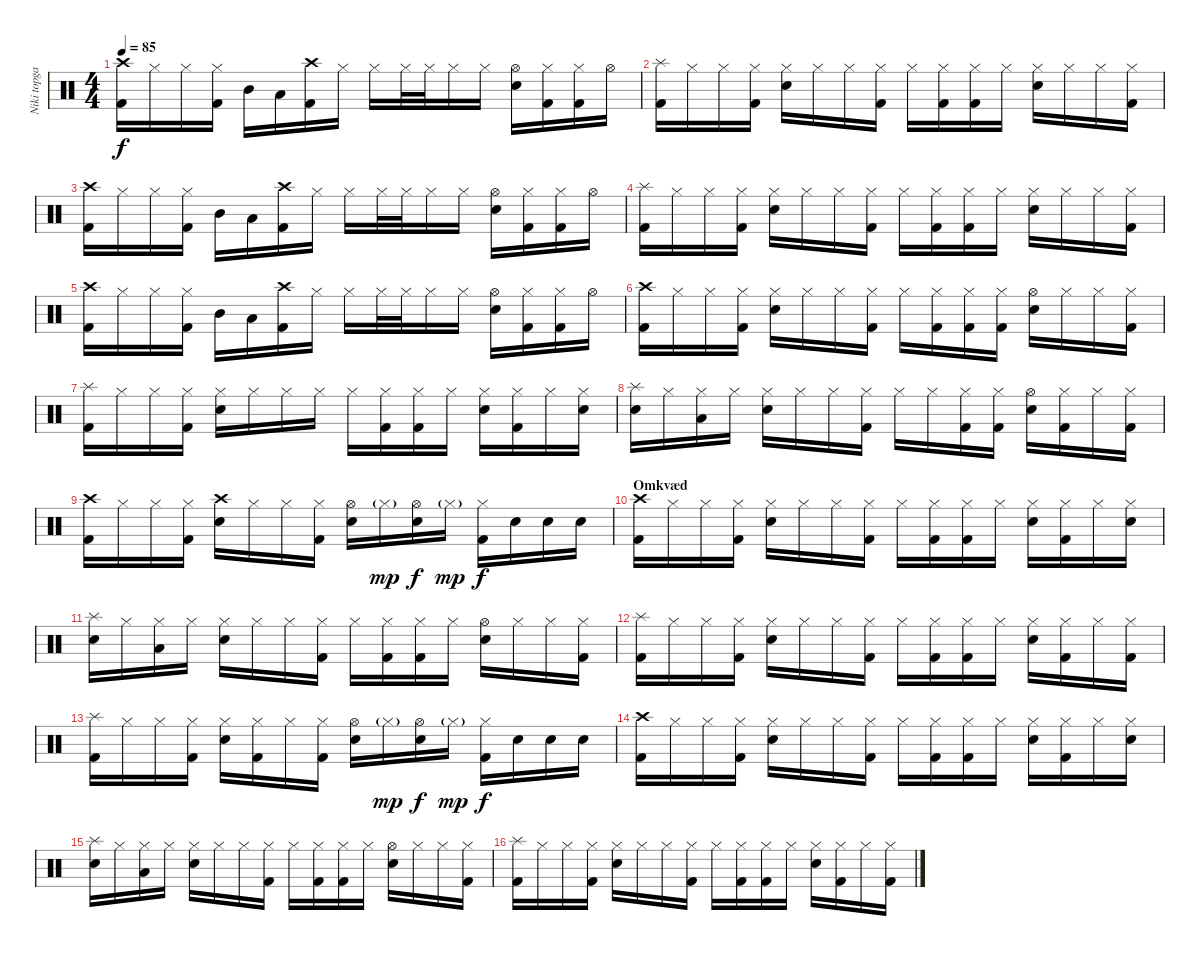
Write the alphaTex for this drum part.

\track ("Niki topgaard" "Niki topga") {instrument percussion}
\staff {score}
\articulation defaults
\ts (4 4)
\tempo 85
\clef neutral
\ks c
("Crash high (hit)" "Kick (hit) 2").16{dy f} "Hi-Hat (closed)".16 "Hi-Hat (closed)".16 ("Hi-Hat (closed)" "Kick (hit) 2").16 "Mid Tom (hit)".16 "Low Tom (hit)".16 ("Crash high (hit)" "Kick (hit) 2").16 "Hi-Hat (closed)".16 "Hi-Hat (closed)".16 "Hi-Hat (closed)".32 "Hi-Hat (closed)".32 "Hi-Hat (closed)".16 "Hi-Hat (closed)".16 ("Hi-Hat (open)" "Snare (hit) 2").16 ("Hi-Hat (closed)" "Kick (hit) 2").16 ("Hi-Hat (closed)" "Kick (hit) 2").16 "Hi-Hat (open)".16 |
("Splash (hit)" "Kick (hit) 2").16 "Hi-Hat (closed)".16 "Hi-Hat (closed)".16 ("Hi-Hat (closed)" "Kick (hit) 2").16 ("Hi-Hat (closed)" "Snare (hit) 2").16 "Hi-Hat (closed)".16 "Hi-Hat (closed)".16 ("Hi-Hat (closed)" "Kick (hit) 2").16 "Hi-Hat (closed)".16 ("Hi-Hat (closed)" "Kick (hit) 2").16 ("Hi-Hat (closed)" "Kick (hit) 2").16 "Hi-Hat (closed)".16 ("Hi-Hat (closed)" "Snare (hit) 2").16 "Hi-Hat (closed)".16 "Hi-Hat (closed)".16 ("Hi-Hat (closed)" "Kick (hit) 2").16 |
("Crash high (hit)" "Kick (hit) 2").16 "Hi-Hat (closed)".16 "Hi-Hat (closed)".16 ("Hi-Hat (closed)" "Kick (hit) 2").16 "Mid Tom (hit)".16 "Low Tom (hit)".16 ("Crash high (hit)" "Kick (hit) 2").16 "Hi-Hat (closed)".16 "Hi-Hat (closed)".16 "Hi-Hat (closed)".32 "Hi-Hat (closed)".32 "Hi-Hat (closed)".16 "Hi-Hat (closed)".16 ("Hi-Hat (open)" "Snare (hit) 2").16 ("Hi-Hat (closed)" "Kick (hit) 2").16 ("Hi-Hat (closed)" "Kick (hit) 2").16 "Hi-Hat (open)".16 |
("Splash (hit)" "Kick (hit) 2").16 "Hi-Hat (closed)".16 "Hi-Hat (closed)".16 ("Hi-Hat (closed)" "Kick (hit) 2").16 ("Hi-Hat (closed)" "Snare (hit) 2").16 "Hi-Hat (closed)".16 "Hi-Hat (closed)".16 ("Hi-Hat (closed)" "Kick (hit) 2").16 "Hi-Hat (closed)".16 ("Hi-Hat (closed)" "Kick (hit) 2").16 ("Hi-Hat (closed)" "Kick (hit) 2").16 "Hi-Hat (closed)".16 ("Hi-Hat (closed)" "Snare (hit) 2").16 "Hi-Hat (closed)".16 "Hi-Hat (closed)".16 ("Hi-Hat (closed)" "Kick (hit) 2").16 |
("Crash high (hit)" "Kick (hit) 2").16 "Hi-Hat (closed)".16 "Hi-Hat (closed)".16 ("Hi-Hat (closed)" "Kick (hit) 2").16 "Mid Tom (hit)".16 "Low Tom (hit)".16 ("Crash high (hit)" "Kick (hit) 2").16 "Hi-Hat (closed)".16 "Hi-Hat (closed)".16 "Hi-Hat (closed)".32 "Hi-Hat (closed)".32 "Hi-Hat (closed)".16 "Hi-Hat (closed)".16 ("Hi-Hat (open)" "Snare (hit) 2").16 ("Hi-Hat (closed)" "Kick (hit) 2").16 ("Hi-Hat (closed)" "Kick (hit) 2").16 "Hi-Hat (open)".16 |
("Crash high (hit)" "Kick (hit) 2").16 "Hi-Hat (closed)".16 "Hi-Hat (closed)".16 ("Hi-Hat (closed)" "Kick (hit) 2").16 ("Hi-Hat (closed)" "Snare (hit) 2").16 "Hi-Hat (closed)".16 "Hi-Hat (closed)".16 ("Hi-Hat (closed)" "Kick (hit) 2").16 "Hi-Hat (closed)".16 ("Hi-Hat (closed)" "Kick (hit) 2").16 ("Hi-Hat (closed)" "Kick (hit) 2").16 ("Hi-Hat (closed)" "Kick (hit) 2").16 ("Hi-Hat (open)" "Snare (hit) 2").16 "Hi-Hat (closed)".16 "Hi-Hat (closed)".16 ("Hi-Hat (closed)" "Kick (hit) 2").16 |
("Splash (hit)" "Kick (hit) 2").16 "Hi-Hat (closed)".16 "Hi-Hat (closed)".16 ("Hi-Hat (closed)" "Kick (hit) 2").16 ("Hi-Hat (closed)" "Snare (hit) 2").16 "Hi-Hat (closed)".16 "Hi-Hat (closed)".16 "Hi-Hat (closed)".16 "Hi-Hat (closed)".16 ("Hi-Hat (closed)" "Kick (hit) 2").16 ("Hi-Hat (closed)" "Kick (hit) 2").16 "Hi-Hat (closed)".16 ("Hi-Hat (closed)" "Snare (hit) 2").16 ("Hi-Hat (closed)" "Kick (hit) 2").16 "Hi-Hat (closed)".16 ("Hi-Hat (closed)" "Snare (hit) 2").16 |
("Splash (hit)" "Snare (hit) 2").16 "Hi-Hat (closed)".16 ("Hi-Hat (closed)" "Low Tom (hit)").16 "Hi-Hat (closed)".16 ("Hi-Hat (closed)" "Snare (hit) 2").16 "Hi-Hat (closed)".16 "Hi-Hat (closed)".16 ("Hi-Hat (closed)" "Kick (hit) 2").16 "Hi-Hat (closed)".16 "Hi-Hat (closed)".16 ("Hi-Hat (closed)" "Kick (hit) 2").16 ("Hi-Hat (closed)" "Kick (hit) 2").16 ("Hi-Hat (open)" "Snare (hit) 2").16 ("Hi-Hat (closed)" "Kick (hit) 2").16 "Hi-Hat (closed)".16 ("Hi-Hat (closed)" "Kick (hit) 2").16 |
("Crash high (hit)" "Kick (hit) 2").16 "Hi-Hat (closed)".16 "Hi-Hat (closed)".16 ("Hi-Hat (closed)" "Kick (hit) 2").16 ("Crash high (hit)" "Snare (hit) 2").16 "Hi-Hat (closed)".16 "Hi-Hat (closed)".16 ("Hi-Hat (closed)" "Kick (hit) 2").16 ("Hi-Hat (open)" "Snare (hit) 2").16 "Hi-Hat (closed)"{g}.16{dy mp} ("Hi-Hat (open)" "Snare (hit) 2").16{dy f} "Hi-Hat (closed)"{g}.16{dy mp} ("Hi-Hat (closed)" "Kick (hit) 2").16{dy f} "Snare (hit) 2".16 "Snare (hit) 2".16 "Snare (hit) 2".16 |
\section ("" "Omkvæd")
("Crash high (hit)" "Kick (hit) 2").16 "Hi-Hat (closed)".16 "Hi-Hat (closed)".16 ("Hi-Hat (closed)" "Kick (hit) 2").16 ("Hi-Hat (closed)" "Snare (hit) 2").16 "Hi-Hat (closed)".16 "Hi-Hat (closed)".16 ("Hi-Hat (closed)" "Kick (hit) 2").16 "Hi-Hat (closed)".16 ("Hi-Hat (closed)" "Kick (hit) 2").16 ("Hi-Hat (closed)" "Kick (hit) 2").16 "Hi-Hat (closed)".16 ("Hi-Hat (closed)" "Snare (hit) 2").16 ("Hi-Hat (closed)" "Kick (hit) 2").16 "Hi-Hat (closed)".16 ("Hi-Hat (closed)" "Snare (hit) 2").16 |
("Splash (hit)" "Snare (hit) 2").16 "Hi-Hat (closed)".16 ("Hi-Hat (closed)" "Low Tom (hit)").16 "Hi-Hat (closed)".16 ("Hi-Hat (closed)" "Snare (hit) 2").16 "Hi-Hat (closed)".16 "Hi-Hat (closed)".16 ("Hi-Hat (closed)" "Kick (hit) 2").16 "Hi-Hat (closed)".16 ("Hi-Hat (closed)" "Kick (hit) 2").16 ("Hi-Hat (closed)" "Kick (hit) 2").16 "Hi-Hat (closed)".16 ("Hi-Hat (open)" "Snare (hit) 2").16 "Hi-Hat (closed)".16 "Hi-Hat (closed)".16 ("Hi-Hat (closed)" "Kick (hit) 2").16 |
("Splash (hit)" "Kick (hit) 2").16 "Hi-Hat (closed)".16 "Hi-Hat (closed)".16 ("Hi-Hat (closed)" "Kick (hit) 2").16 ("Hi-Hat (closed)" "Snare (hit) 2").16 "Hi-Hat (closed)".16 "Hi-Hat (closed)".16 ("Hi-Hat (closed)" "Kick (hit) 2").16 "Hi-Hat (closed)".16 ("Hi-Hat (closed)" "Kick (hit) 2").16 ("Hi-Hat (closed)" "Kick (hit) 2").16 "Hi-Hat (closed)".16 ("Hi-Hat (closed)" "Snare (hit) 2").16 ("Hi-Hat (closed)" "Kick (hit) 2").16 "Hi-Hat (closed)".16 ("Hi-Hat (closed)" "Kick (hit) 2").16 |
("Splash (hit)" "Kick (hit) 2").16 "Hi-Hat (closed)".16 "Hi-Hat (closed)".16 ("Hi-Hat (closed)" "Kick (hit) 2").16 ("Hi-Hat (closed)" "Snare (hit) 2").16 ("Hi-Hat (closed)" "Kick (hit) 2").16 "Hi-Hat (closed)".16 ("Hi-Hat (closed)" "Kick (hit) 2").16 ("Hi-Hat (open)" "Snare (hit) 2").16 "Hi-Hat (closed)"{g}.16{dy mp} ("Hi-Hat (open)" "Snare (hit) 2").16{dy f} "Hi-Hat (closed)"{g}.16{dy mp} ("Hi-Hat (closed)" "Kick (hit) 2").16{dy f} "Snare (hit) 2".16 "Snare (hit) 2".16 "Snare (hit) 2".16 |
("Crash high (hit)" "Kick (hit) 2").16 "Hi-Hat (closed)".16 "Hi-Hat (closed)".16 ("Hi-Hat (closed)" "Kick (hit) 2").16 ("Hi-Hat (closed)" "Snare (hit) 2").16 "Hi-Hat (closed)".16 "Hi-Hat (closed)".16 ("Hi-Hat (closed)" "Kick (hit) 2").16 "Hi-Hat (closed)".16 ("Hi-Hat (closed)" "Kick (hit) 2").16 ("Hi-Hat (closed)" "Kick (hit) 2").16 "Hi-Hat (closed)".16 ("Hi-Hat (closed)" "Snare (hit) 2").16 ("Hi-Hat (closed)" "Kick (hit) 2").16 "Hi-Hat (closed)".16 ("Hi-Hat (closed)" "Snare (hit) 2").16 |
("Splash (hit)" "Snare (hit) 2").16 "Hi-Hat (closed)".16 ("Hi-Hat (closed)" "Low Tom (hit)").16 "Hi-Hat (closed)".16 ("Hi-Hat (closed)" "Snare (hit) 2").16 "Hi-Hat (closed)".16 "Hi-Hat (closed)".16 ("Hi-Hat (closed)" "Kick (hit) 2").16 "Hi-Hat (closed)".16 ("Hi-Hat (closed)" "Kick (hit) 2").16 ("Hi-Hat (closed)" "Kick (hit) 2").16 "Hi-Hat (closed)".16 ("Hi-Hat (open)" "Snare (hit) 2").16 "Hi-Hat (closed)".16 "Hi-Hat (closed)".16 ("Hi-Hat (closed)" "Kick (hit) 2").16 |
("Splash (hit)" "Kick (hit) 2").16 "Hi-Hat (closed)".16 "Hi-Hat (closed)".16 ("Hi-Hat (closed)" "Kick (hit) 2").16 ("Hi-Hat (closed)" "Snare (hit) 2").16 "Hi-Hat (closed)".16 "Hi-Hat (closed)".16 ("Hi-Hat (closed)" "Kick (hit) 2").16 "Hi-Hat (closed)".16 ("Hi-Hat (closed)" "Kick (hit) 2").16 ("Hi-Hat (closed)" "Kick (hit) 2").16 "Hi-Hat (closed)".16 ("Hi-Hat (closed)" "Snare (hit) 2").16 ("Hi-Hat (closed)" "Kick (hit) 2").16 "Hi-Hat (closed)".16 ("Hi-Hat (closed)" "Kick (hit) 2").16
